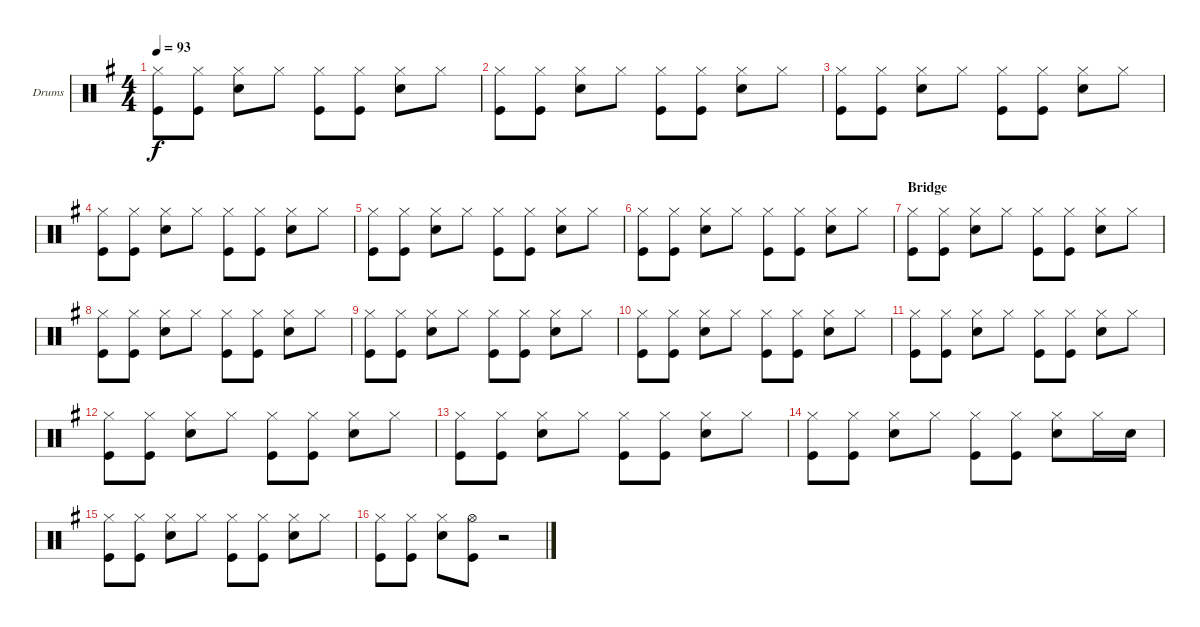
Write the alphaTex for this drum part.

\bracketExtendMode groupsimilarinstruments
\firstSystemTrackNameOrientation horizontal
\otherSystemsTrackNameOrientation horizontal
\track ("Drumkit" "Drums") {instrument percussion}
\staff {score}
\articulation defaults
\ts (4 4)
\tempo 93
\clef neutral
\ks g
("Hi-Hat (closed)" "Kick (hit)").8{dy f} ("Hi-Hat (closed)" "Kick (hit)").8 ("Hi-Hat (closed)" "Snare (hit) 2").8 "Hi-Hat (closed)".8 ("Hi-Hat (closed)" "Kick (hit)").8 ("Hi-Hat (closed)" "Kick (hit)").8 ("Hi-Hat (closed)" "Snare (hit) 2").8 "Hi-Hat (closed)".8 |
("Hi-Hat (closed)" "Kick (hit)").8 ("Hi-Hat (closed)" "Kick (hit)").8 ("Hi-Hat (closed)" "Snare (hit) 2").8 "Hi-Hat (closed)".8 ("Hi-Hat (closed)" "Kick (hit)").8 ("Hi-Hat (closed)" "Kick (hit)").8 ("Hi-Hat (closed)" "Snare (hit) 2").8 "Hi-Hat (closed)".8 |
("Hi-Hat (closed)" "Kick (hit)").8 ("Hi-Hat (closed)" "Kick (hit)").8 ("Hi-Hat (closed)" "Snare (hit) 2").8 "Hi-Hat (closed)".8 ("Hi-Hat (closed)" "Kick (hit)").8 ("Hi-Hat (closed)" "Kick (hit)").8 ("Hi-Hat (closed)" "Snare (hit) 2").8 "Hi-Hat (closed)".8 |
("Hi-Hat (closed)" "Kick (hit)").8 ("Hi-Hat (closed)" "Kick (hit)").8 ("Hi-Hat (closed)" "Snare (hit) 2").8 "Hi-Hat (closed)".8 ("Hi-Hat (closed)" "Kick (hit)").8 ("Hi-Hat (closed)" "Kick (hit)").8 ("Hi-Hat (closed)" "Snare (hit) 2").8 "Hi-Hat (closed)".8 |
("Hi-Hat (closed)" "Kick (hit)").8 ("Hi-Hat (closed)" "Kick (hit)").8 ("Hi-Hat (closed)" "Snare (hit) 2").8 "Hi-Hat (closed)".8 ("Hi-Hat (closed)" "Kick (hit)").8 ("Hi-Hat (closed)" "Kick (hit)").8 ("Hi-Hat (closed)" "Snare (hit) 2").8 "Hi-Hat (closed)".8 |
("Hi-Hat (closed)" "Kick (hit)").8 ("Hi-Hat (closed)" "Kick (hit)").8 ("Hi-Hat (closed)" "Snare (hit) 2").8 "Hi-Hat (closed)".8 ("Hi-Hat (closed)" "Kick (hit)").8 ("Hi-Hat (closed)" "Kick (hit)").8 ("Hi-Hat (closed)" "Snare (hit) 2").8 "Hi-Hat (closed)".8 |
\section ("" "Bridge")
("Hi-Hat (closed)" "Kick (hit)").8 ("Hi-Hat (closed)" "Kick (hit)").8 ("Hi-Hat (closed)" "Snare (hit) 2").8 "Hi-Hat (closed)".8 ("Hi-Hat (closed)" "Kick (hit)").8 ("Hi-Hat (closed)" "Kick (hit)").8 ("Hi-Hat (closed)" "Snare (hit) 2").8 "Hi-Hat (closed)".8 |
("Hi-Hat (closed)" "Kick (hit)").8 ("Hi-Hat (closed)" "Kick (hit)").8 ("Hi-Hat (closed)" "Snare (hit) 2").8 "Hi-Hat (closed)".8 ("Hi-Hat (closed)" "Kick (hit)").8 ("Hi-Hat (closed)" "Kick (hit)").8 ("Hi-Hat (closed)" "Snare (hit) 2").8 "Hi-Hat (closed)".8 |
("Hi-Hat (closed)" "Kick (hit)").8 ("Hi-Hat (closed)" "Kick (hit)").8 ("Hi-Hat (closed)" "Snare (hit) 2").8 "Hi-Hat (closed)".8 ("Hi-Hat (closed)" "Kick (hit)").8 ("Hi-Hat (closed)" "Kick (hit)").8 ("Hi-Hat (closed)" "Snare (hit) 2").8 "Hi-Hat (closed)".8 |
("Hi-Hat (closed)" "Kick (hit)").8 ("Hi-Hat (closed)" "Kick (hit)").8 ("Hi-Hat (closed)" "Snare (hit) 2").8 "Hi-Hat (closed)".8 ("Hi-Hat (closed)" "Kick (hit)").8 ("Hi-Hat (closed)" "Kick (hit)").8 ("Hi-Hat (closed)" "Snare (hit) 2").8 "Hi-Hat (closed)".8 |
("Hi-Hat (closed)" "Kick (hit)").8 ("Hi-Hat (closed)" "Kick (hit)").8 ("Hi-Hat (closed)" "Snare (hit) 2").8 "Hi-Hat (closed)".8 ("Hi-Hat (closed)" "Kick (hit)").8 ("Hi-Hat (closed)" "Kick (hit)").8 ("Hi-Hat (closed)" "Snare (hit) 2").8 "Hi-Hat (closed)".8 |
("Hi-Hat (closed)" "Kick (hit)").8 ("Hi-Hat (closed)" "Kick (hit)").8 ("Hi-Hat (closed)" "Snare (hit) 2").8 "Hi-Hat (closed)".8 ("Hi-Hat (closed)" "Kick (hit)").8 ("Hi-Hat (closed)" "Kick (hit)").8 ("Hi-Hat (closed)" "Snare (hit) 2").8 "Hi-Hat (closed)".8 |
("Hi-Hat (closed)" "Kick (hit)").8 ("Hi-Hat (closed)" "Kick (hit)").8 ("Hi-Hat (closed)" "Snare (hit) 2").8 "Hi-Hat (closed)".8 ("Hi-Hat (closed)" "Kick (hit)").8 ("Hi-Hat (closed)" "Kick (hit)").8 ("Hi-Hat (closed)" "Snare (hit) 2").8 "Hi-Hat (closed)".8 |
("Hi-Hat (closed)" "Kick (hit)").8 ("Hi-Hat (closed)" "Kick (hit)").8 ("Hi-Hat (closed)" "Snare (hit) 2").8 "Hi-Hat (closed)".8 ("Hi-Hat (closed)" "Kick (hit)").8 ("Hi-Hat (closed)" "Kick (hit)").8 ("Hi-Hat (closed)" "Snare (hit) 2").8 "Hi-Hat (closed)".16 "Snare (hit) 2".16 |
("Hi-Hat (closed)" "Kick (hit)").8 ("Hi-Hat (closed)" "Kick (hit)").8 ("Hi-Hat (closed)" "Snare (hit) 2").8 "Hi-Hat (closed)".8 ("Hi-Hat (closed)" "Kick (hit)").8 ("Hi-Hat (closed)" "Kick (hit)").8 ("Hi-Hat (closed)" "Snare (hit) 2").8 "Hi-Hat (closed)".8 |
("Hi-Hat (closed)" "Kick (hit)").8 ("Hi-Hat (closed)" "Kick (hit)").8 ("Hi-Hat (closed)" "Snare (hit) 2").8 ("Hi-Hat (open)" "Kick (hit)").8 r.2
